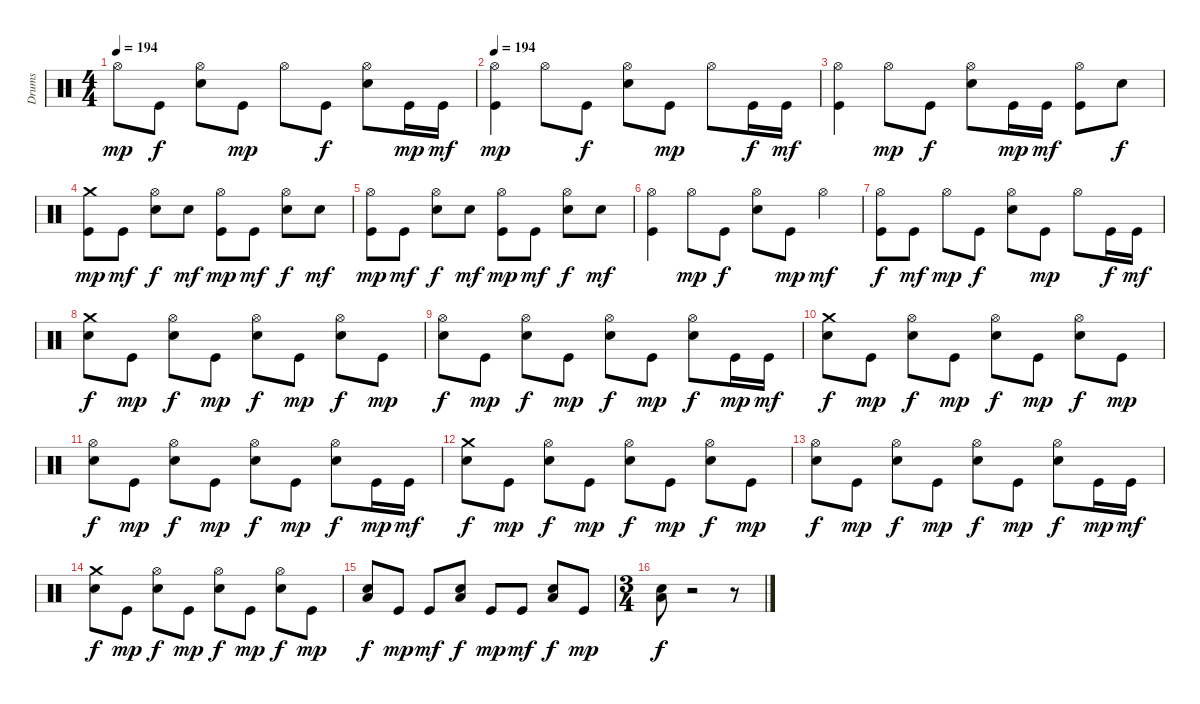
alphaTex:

\track ("Drums" "Drums") {instrument percussion}
\staff {score}
\articulation defaults
\ts (4 4)
\tempo 194
\clef neutral
\ks c "Hi-Hat (open)".8{dy mp} "Kick (hit)".8{dy f}
("Hi-Hat (open)" "Snare (hit) 2").8 "Kick (hit)".8{dy mp} "Hi-Hat (open)".8 "Kick (hit)".8{dy f} ("Hi-Hat (open)" "Snare (hit) 2").8 "Kick (hit)".16{dy mp} "Kick (hit)".16{dy mf} |
\tempo 194
("Hi-Hat (open)" "Kick (hit)").4{dy mp} "Hi-Hat (open)".8 "Kick (hit)".8{dy f} ("Hi-Hat (open)" "Snare (hit) 2").8 "Kick (hit)".8{dy mp} "Hi-Hat (open)".8 "Kick (hit)".16{dy f} "Kick (hit)".16{dy mf} |
("Hi-Hat (open)" "Kick (hit)").4 "Hi-Hat (open)".8{dy mp} "Kick (hit)".8{dy f} ("Hi-Hat (open)" "Snare (hit) 2").8 "Kick (hit)".16{dy mp} "Kick (hit)".16{dy mf} ("Hi-Hat (open)" "Kick (hit)").8 "Snare (hit) 2".8{dy f} |
("Crash medium (hit)" "Kick (hit)").8{dy mp} "Kick (hit)".8{dy mf} ("Hi-Hat (open)" "Snare (hit) 2").8{dy f} "Snare (hit) 2".8{dy mf} ("Hi-Hat (open)" "Kick (hit)").8{dy mp} "Kick (hit)".8{dy mf} ("Hi-Hat (open)" "Snare (hit) 2").8{dy f} "Snare (hit) 2".8{dy mf} |
("Hi-Hat (open)" "Kick (hit)").8{dy mp} "Kick (hit)".8{dy mf} ("Hi-Hat (open)" "Snare (hit) 2").8{dy f} "Snare (hit) 2".8{dy mf} ("Hi-Hat (open)" "Kick (hit)").8{dy mp} "Kick (hit)".8{dy mf} ("Hi-Hat (open)" "Snare (hit) 2").8{dy f} "Snare (hit) 2".8{dy mf} |
("Hi-Hat (open)" "Kick (hit)").4 "Hi-Hat (open)".8{dy mp} "Kick (hit)".8{dy f} ("Hi-Hat (open)" "Snare (hit) 2").8 "Kick (hit)".8{dy mp} "Hi-Hat (open)".4{dy mf} |
("Hi-Hat (open)" "Kick (hit)").8{dy f} "Kick (hit)".8{dy mf} "Hi-Hat (open)".8{dy mp} "Kick (hit)".8{dy f} ("Hi-Hat (open)" "Snare (hit) 2").8 "Kick (hit)".8{dy mp} "Hi-Hat (open)".8 "Kick (hit)".16{dy f} "Kick (hit)".16{dy mf} |
("Crash medium (hit)" "Snare (hit) 2").8{dy f} "Kick (hit)".8{dy mp} ("Hi-Hat (open)" "Snare (hit) 2").8{dy f} "Kick (hit)".8{dy mp} ("Hi-Hat (open)" "Snare (hit) 2").8{dy f} "Kick (hit)".8{dy mp} ("Hi-Hat (open)" "Snare (hit) 2").8{dy f} "Kick (hit)".8{dy mp} |
("Hi-Hat (open)" "Snare (hit) 2").8{dy f} "Kick (hit)".8{dy mp} ("Hi-Hat (open)" "Snare (hit) 2").8{dy f} "Kick (hit)".8{dy mp} ("Hi-Hat (open)" "Snare (hit) 2").8{dy f} "Kick (hit)".8{dy mp} ("Hi-Hat (open)" "Snare (hit) 2").8{dy f} "Kick (hit)".16{dy mp} "Kick (hit)".16{dy mf} |
("Crash medium (hit)" "Snare (hit) 2").8{dy f} "Kick (hit)".8{dy mp} ("Hi-Hat (open)" "Snare (hit) 2").8{dy f} "Kick (hit)".8{dy mp} ("Hi-Hat (open)" "Snare (hit) 2").8{dy f} "Kick (hit)".8{dy mp} ("Hi-Hat (open)" "Snare (hit) 2").8{dy f} "Kick (hit)".8{dy mp} |
("Hi-Hat (open)" "Snare (hit) 2").8{dy f} "Kick (hit)".8{dy mp} ("Hi-Hat (open)" "Snare (hit) 2").8{dy f} "Kick (hit)".8{dy mp} ("Hi-Hat (open)" "Snare (hit) 2").8{dy f} "Kick (hit)".8{dy mp} ("Hi-Hat (open)" "Snare (hit) 2").8{dy f} "Kick (hit)".16{dy mp} "Kick (hit)".16{dy mf} |
("Crash medium (hit)" "Snare (hit) 2").8{dy f} "Kick (hit)".8{dy mp} ("Hi-Hat (open)" "Snare (hit) 2").8{dy f} "Kick (hit)".8{dy mp} ("Hi-Hat (open)" "Snare (hit) 2").8{dy f} "Kick (hit)".8{dy mp} ("Hi-Hat (open)" "Snare (hit) 2").8{dy f} "Kick (hit)".8{dy mp} |
("Hi-Hat (open)" "Snare (hit) 2").8{dy f} "Kick (hit)".8{dy mp} ("Hi-Hat (open)" "Snare (hit) 2").8{dy f} "Kick (hit)".8{dy mp} ("Hi-Hat (open)" "Snare (hit) 2").8{dy f} "Kick (hit)".8{dy mp} ("Hi-Hat (open)" "Snare (hit) 2").8{dy f} "Kick (hit)".16{dy mp} "Kick (hit)".16{dy mf} |
("Crash medium (hit)" "Snare (hit) 2").8{dy f} "Kick (hit)".8{dy mp} ("Hi-Hat (open)" "Snare (hit) 2").8{dy f} "Kick (hit)".8{dy mp} ("Hi-Hat (open)" "Snare (hit) 2").8{dy f} "Kick (hit)".8{dy mp} ("Hi-Hat (open)" "Snare (hit) 2").8{dy f} "Kick (hit)".8{dy mp} |
("Low Floor Tom (hit)" "Snare (hit) 2").8{dy f} "Kick (hit)".8{dy mp} "Kick (hit)".8{dy mf} ("Low Floor Tom (hit)" "Snare (hit) 2").8{dy f} "Kick (hit)".8{dy mp} "Kick (hit)".8{dy mf} ("Low Floor Tom (hit)" "Snare (hit) 2").8{dy f} "Kick (hit)".8{dy mp} |
\ts (3 4)
("Low Floor Tom (hit)" "Snare (hit) 2").8{dy f} r.2 r.8
